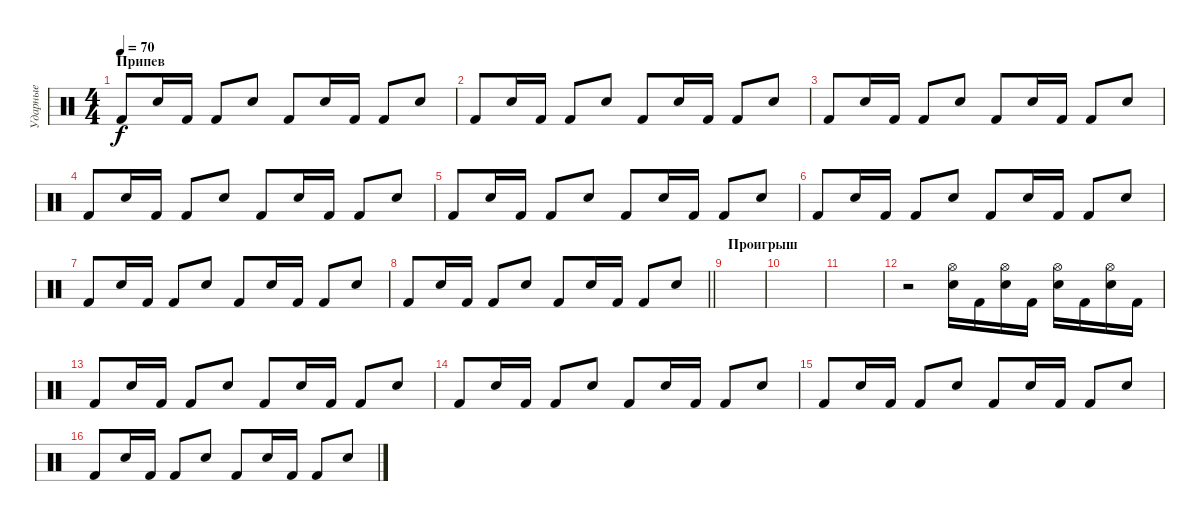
\track ("Ударные" "Ударные") {instrument percussion}
\staff {score}
\articulation defaults
\ts (4 4)
\section ("" "Припев")
\tempo 70
\clef neutral
\ks c "Kick (hit) 2".8{dy f} "Electric Snare (hit)".16 "Kick (hit) 2".16 "Kick (hit) 2".8 "Electric Snare (hit)".8 "Kick (hit) 2".8 "Electric Snare (hit)".16 "Kick (hit) 2".16 "Kick (hit) 2".8 "Electric Snare (hit)".8
|
"Kick (hit) 2".8 "Electric Snare (hit)".16 "Kick (hit) 2".16 "Kick (hit) 2".8 "Electric Snare (hit)".8 "Kick (hit) 2".8 "Electric Snare (hit)".16 "Kick (hit) 2".16 "Kick (hit) 2".8 "Electric Snare (hit)".8 |
"Kick (hit) 2".8 "Electric Snare (hit)".16 "Kick (hit) 2".16 "Kick (hit) 2".8 "Electric Snare (hit)".8 "Kick (hit) 2".8 "Electric Snare (hit)".16 "Kick (hit) 2".16 "Kick (hit) 2".8 "Electric Snare (hit)".8 |
"Kick (hit) 2".8 "Electric Snare (hit)".16 "Kick (hit) 2".16 "Kick (hit) 2".8 "Electric Snare (hit)".8 "Kick (hit) 2".8 "Electric Snare (hit)".16 "Kick (hit) 2".16 "Kick (hit) 2".8 "Electric Snare (hit)".8 |
"Kick (hit) 2".8 "Electric Snare (hit)".16 "Kick (hit) 2".16 "Kick (hit) 2".8 "Electric Snare (hit)".8 "Kick (hit) 2".8 "Electric Snare (hit)".16 "Kick (hit) 2".16 "Kick (hit) 2".8 "Electric Snare (hit)".8 |
"Kick (hit) 2".8 "Electric Snare (hit)".16 "Kick (hit) 2".16 "Kick (hit) 2".8 "Electric Snare (hit)".8 "Kick (hit) 2".8 "Electric Snare (hit)".16 "Kick (hit) 2".16 "Kick (hit) 2".8 "Electric Snare (hit)".8 |
"Kick (hit) 2".8 "Electric Snare (hit)".16 "Kick (hit) 2".16 "Kick (hit) 2".8 "Electric Snare (hit)".8 "Kick (hit) 2".8 "Electric Snare (hit)".16 "Kick (hit) 2".16 "Kick (hit) 2".8 "Electric Snare (hit)".8 |
\barLineRight lightlight "Kick (hit) 2".8 "Electric Snare (hit)".16 "Kick (hit) 2".16 "Kick (hit) 2".8 "Electric Snare (hit)".8 "Kick (hit) 2".8 "Electric Snare (hit)".16 "Kick (hit) 2".16 "Kick (hit) 2".8 "Electric Snare (hit)".8
|
\section ("" "Проигрыш")
|
|
|
r.2 ("Electric Snare (hit)" "Hi-Hat (open)").16 "Kick (hit) 2".16 ("Electric Snare (hit)" "Hi-Hat (open)").16 "Kick (hit) 2".16 ("Electric Snare (hit)" "Hi-Hat (open)").16 "Kick (hit) 2".16 ("Electric Snare (hit)" "Hi-Hat (open)").16 "Kick (hit) 2".16 |
"Kick (hit) 2".8 "Electric Snare (hit)".16 "Kick (hit) 2".16 "Kick (hit) 2".8 "Electric Snare (hit)".8 "Kick (hit) 2".8 "Electric Snare (hit)".16 "Kick (hit) 2".16 "Kick (hit) 2".8 "Electric Snare (hit)".8 |
"Kick (hit) 2".8 "Electric Snare (hit)".16 "Kick (hit) 2".16 "Kick (hit) 2".8 "Electric Snare (hit)".8 "Kick (hit) 2".8 "Electric Snare (hit)".16 "Kick (hit) 2".16 "Kick (hit) 2".8 "Electric Snare (hit)".8 |
"Kick (hit) 2".8 "Electric Snare (hit)".16 "Kick (hit) 2".16 "Kick (hit) 2".8 "Electric Snare (hit)".8 "Kick (hit) 2".8 "Electric Snare (hit)".16 "Kick (hit) 2".16 "Kick (hit) 2".8 "Electric Snare (hit)".8 |
"Kick (hit) 2".8 "Electric Snare (hit)".16 "Kick (hit) 2".16 "Kick (hit) 2".8 "Electric Snare (hit)".8 "Kick (hit) 2".8 "Electric Snare (hit)".16 "Kick (hit) 2".16 "Kick (hit) 2".8 "Electric Snare (hit)".8
